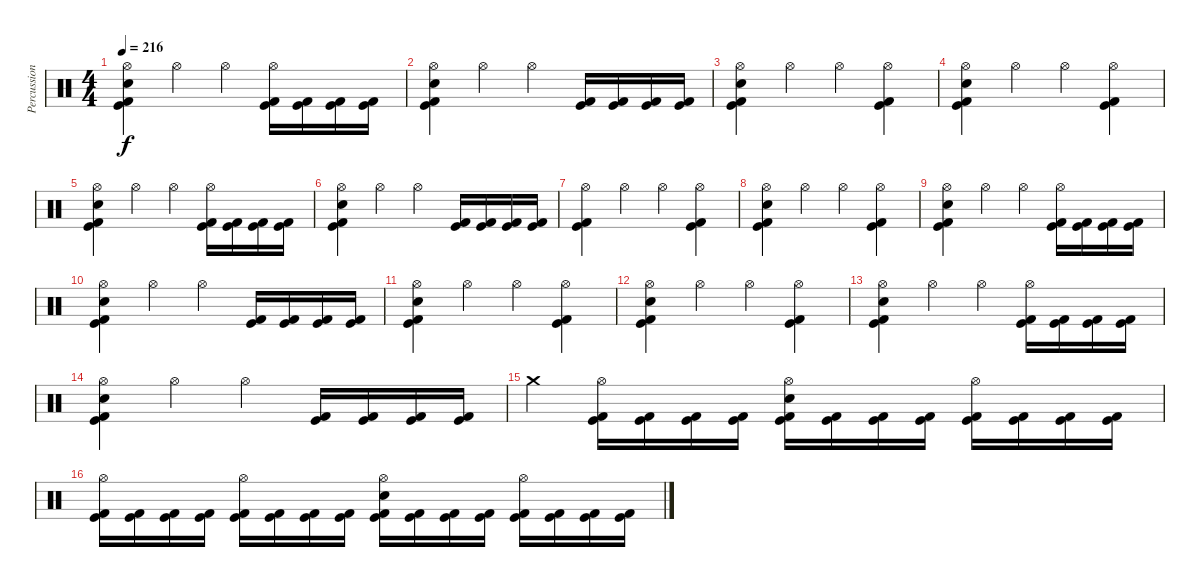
\track ("Percussions" "Percussion") {instrument percussion}
\staff {score}
\articulation defaults
\ts (4 4)
\tempo 216
\clef neutral
\ks c
("Hi-Hat (open)" "Electric Snare (hit)" "Kick (hit)" "Kick (hit) 2").4{dy f} "Hi-Hat (open)".4 "Hi-Hat (open)".4 ("Hi-Hat (open)" "Kick (hit)" "Kick (hit) 2").16 ("Kick (hit)" "Kick (hit) 2").16 ("Kick (hit)" "Kick (hit) 2").16 ("Kick (hit)" "Kick (hit) 2").16 |
("Hi-Hat (open)" "Electric Snare (hit)" "Kick (hit)" "Kick (hit) 2").4 "Hi-Hat (open)".4 "Hi-Hat (open)".4 ("Kick (hit)" "Kick (hit) 2").16 ("Kick (hit)" "Kick (hit) 2").16 ("Kick (hit)" "Kick (hit) 2").16 ("Kick (hit)" "Kick (hit) 2").16 |
("Hi-Hat (open)" "Electric Snare (hit)" "Kick (hit)" "Kick (hit) 2").4 "Hi-Hat (open)".4 "Hi-Hat (open)".4 ("Hi-Hat (open)" "Kick (hit)" "Kick (hit) 2").4 |
("Hi-Hat (open)" "Electric Snare (hit)" "Kick (hit)" "Kick (hit) 2").4 "Hi-Hat (open)".4 "Hi-Hat (open)".4 ("Hi-Hat (open)" "Kick (hit)" "Kick (hit) 2").4 |
("Hi-Hat (open)" "Electric Snare (hit)" "Kick (hit)" "Kick (hit) 2").4 "Hi-Hat (open)".4 "Hi-Hat (open)".4 ("Hi-Hat (open)" "Kick (hit)" "Kick (hit) 2").16 ("Kick (hit)" "Kick (hit) 2").16 ("Kick (hit)" "Kick (hit) 2").16 ("Kick (hit)" "Kick (hit) 2").16 |
("Hi-Hat (open)" "Electric Snare (hit)" "Kick (hit)" "Kick (hit) 2").4 "Hi-Hat (open)".4 "Hi-Hat (open)".4 ("Kick (hit)" "Kick (hit) 2").16 ("Kick (hit)" "Kick (hit) 2").16 ("Kick (hit)" "Kick (hit) 2").16 ("Kick (hit)" "Kick (hit) 2").16 |
("Hi-Hat (open)" "Kick (hit)" "Kick (hit) 2").4 "Hi-Hat (open)".4 "Hi-Hat (open)".4 ("Hi-Hat (open)" "Kick (hit)" "Kick (hit) 2").4 |
("Hi-Hat (open)" "Electric Snare (hit)" "Kick (hit)" "Kick (hit) 2").4 "Hi-Hat (open)".4 "Hi-Hat (open)".4 ("Hi-Hat (open)" "Kick (hit)" "Kick (hit) 2").4 |
("Hi-Hat (open)" "Electric Snare (hit)" "Kick (hit)" "Kick (hit) 2").4 "Hi-Hat (open)".4 "Hi-Hat (open)".4 ("Hi-Hat (open)" "Kick (hit)" "Kick (hit) 2").16 ("Kick (hit)" "Kick (hit) 2").16 ("Kick (hit)" "Kick (hit) 2").16 ("Kick (hit)" "Kick (hit) 2").16 |
("Hi-Hat (open)" "Electric Snare (hit)" "Kick (hit)" "Kick (hit) 2").4 "Hi-Hat (open)".4 "Hi-Hat (open)".4 ("Kick (hit)" "Kick (hit) 2").16 ("Kick (hit)" "Kick (hit) 2").16 ("Kick (hit)" "Kick (hit) 2").16 ("Kick (hit)" "Kick (hit) 2").16 |
("Hi-Hat (open)" "Electric Snare (hit)" "Kick (hit)" "Kick (hit) 2").4 "Hi-Hat (open)".4 "Hi-Hat (open)".4 ("Hi-Hat (open)" "Kick (hit)" "Kick (hit) 2").4 |
("Hi-Hat (open)" "Electric Snare (hit)" "Kick (hit)" "Kick (hit) 2").4 "Hi-Hat (open)".4 "Hi-Hat (open)".4 ("Hi-Hat (open)" "Kick (hit)" "Kick (hit) 2").4 |
("Hi-Hat (open)" "Electric Snare (hit)" "Kick (hit)" "Kick (hit) 2").4 "Hi-Hat (open)".4 "Hi-Hat (open)".4 ("Hi-Hat (open)" "Kick (hit)" "Kick (hit) 2").16 ("Kick (hit)" "Kick (hit) 2").16 ("Kick (hit)" "Kick (hit) 2").16 ("Kick (hit)" "Kick (hit) 2").16 |
("Hi-Hat (open)" "Electric Snare (hit)" "Kick (hit)" "Kick (hit) 2").4 "Hi-Hat (open)".4 "Hi-Hat (open)".4 ("Kick (hit)" "Kick (hit) 2").16 ("Kick (hit)" "Kick (hit) 2").16 ("Kick (hit)" "Kick (hit) 2").16 ("Kick (hit)" "Kick (hit) 2").16 |
"Crash medium (hit)".4 ("Hi-Hat (open)" "Kick (hit)" "Kick (hit) 2").16 ("Kick (hit)" "Kick (hit) 2").16 ("Kick (hit)" "Kick (hit) 2").16 ("Kick (hit)" "Kick (hit) 2").16 ("Hi-Hat (open)" "Electric Snare (hit)" "Kick (hit)" "Kick (hit) 2").16 ("Kick (hit)" "Kick (hit) 2").16 ("Kick (hit)" "Kick (hit) 2").16 ("Kick (hit)" "Kick (hit) 2").16 ("Hi-Hat (open)" "Kick (hit)" "Kick (hit) 2").16 ("Kick (hit)" "Kick (hit) 2").16 ("Kick (hit)" "Kick (hit) 2").16 ("Kick (hit)" "Kick (hit) 2").16 |
("Hi-Hat (open)" "Kick (hit)" "Kick (hit) 2").16 ("Kick (hit)" "Kick (hit) 2").16 ("Kick (hit)" "Kick (hit) 2").16 ("Kick (hit)" "Kick (hit) 2").16 ("Hi-Hat (open)" "Kick (hit)" "Kick (hit) 2").16 ("Kick (hit)" "Kick (hit) 2").16 ("Kick (hit)" "Kick (hit) 2").16 ("Kick (hit)" "Kick (hit) 2").16 ("Hi-Hat (open)" "Electric Snare (hit)" "Kick (hit)" "Kick (hit) 2").16 ("Kick (hit)" "Kick (hit) 2").16 ("Kick (hit)" "Kick (hit) 2").16 ("Kick (hit)" "Kick (hit) 2").16 ("Hi-Hat (open)" "Kick (hit)" "Kick (hit) 2").16 ("Kick (hit)" "Kick (hit) 2").16 ("Kick (hit)" "Kick (hit) 2").16 ("Kick (hit)" "Kick (hit) 2").16
